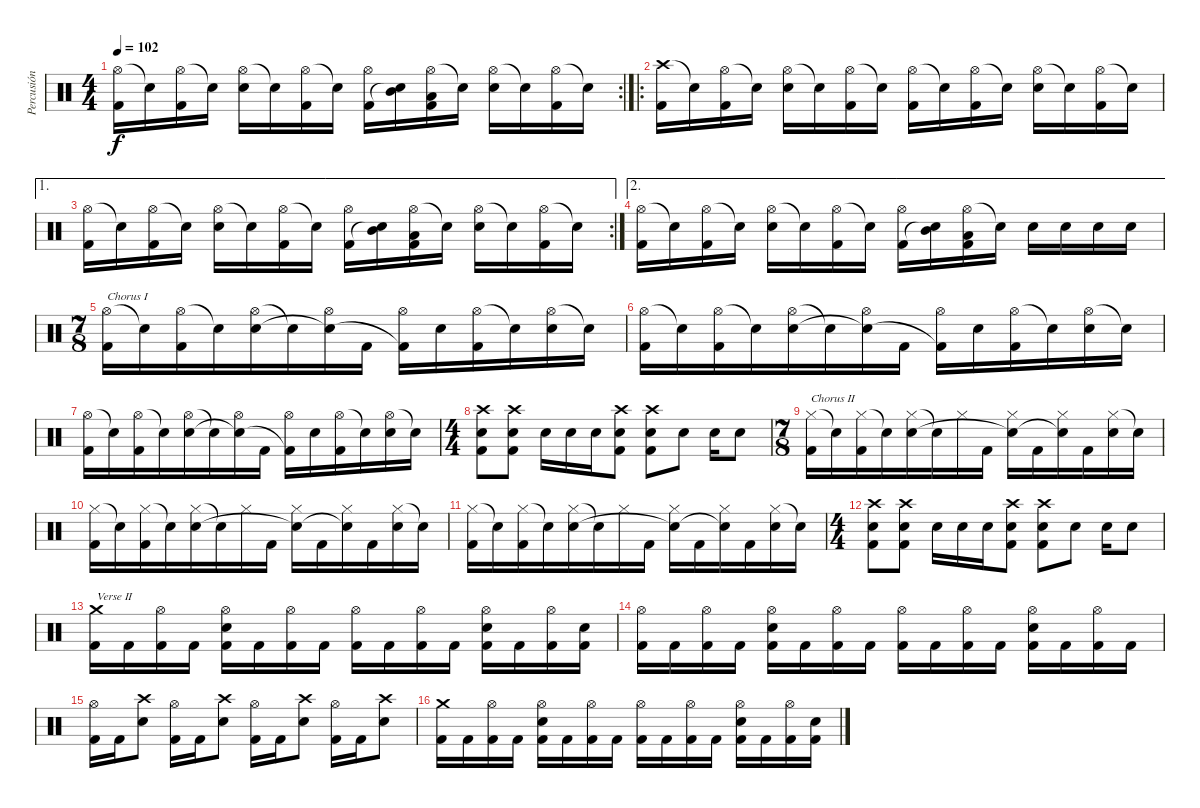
\track ("Percusión" "Percusión") {instrument percussion}
\staff {score}
\articulation defaults
\rc 2
\ts (4 4)
\tempo 102
\clef neutral
\ks c
("Hi-Hat (open)" "Kick (hit) 2").16{dy f} "Snare (hit)"{t}.16 ("Hi-Hat (open)" "Kick (hit) 2").16 "Snare (hit)"{t}.16 ("Hi-Hat (open)" "Electric Snare (hit)").16 "Snare (hit)"{t}.16 ("Hi-Hat (open)" "Kick (hit) 2").16 "Snare (hit)"{t}.16 ("Hi-Hat (open)" "Kick (hit) 2").16 ("Mid Tom (hit)" "Snare (hit)"{t}).16 ("Hi-Hat (open)" "Low Tom (hit)" "Kick (hit) 2").16 "Snare (hit)"{t}.16 ("Hi-Hat (open)" "Electric Snare (hit)").16 "Snare (hit)"{t}.16 ("Hi-Hat (open)" "Kick (hit) 2").16 "Snare (hit)"{t}.16 |
\ro
("Crash high (hit)" "Kick (hit) 2").16 "Snare (hit)"{t}.16 ("Hi-Hat (open)" "Kick (hit) 2").16 "Snare (hit)"{t}.16 ("Hi-Hat (open)" "Electric Snare (hit)").16 "Snare (hit)"{t}.16 ("Hi-Hat (open)" "Kick (hit) 2").16 "Snare (hit)"{t}.16 ("Hi-Hat (open)" "Kick (hit) 2").16 "Snare (hit)"{t}.16 ("Hi-Hat (open)" "Kick (hit) 2").16 "Snare (hit)"{t}.16 ("Hi-Hat (open)" "Electric Snare (hit)").16 "Snare (hit)"{t}.16 ("Hi-Hat (open)" "Kick (hit) 2").16 "Snare (hit)"{t}.16 |
\ae 1
\rc 2
("Hi-Hat (open)" "Kick (hit) 2").16 "Snare (hit)"{t}.16 ("Hi-Hat (open)" "Kick (hit) 2").16 "Snare (hit)"{t}.16 ("Hi-Hat (open)" "Electric Snare (hit)").16 "Snare (hit)"{t}.16 ("Hi-Hat (open)" "Kick (hit) 2").16 "Snare (hit)"{t}.16 ("Hi-Hat (open)" "Kick (hit) 2").16 ("Mid Tom (hit)" "Snare (hit)"{t}).16 ("Hi-Hat (open)" "Low Tom (hit)" "Kick (hit) 2").16 "Snare (hit)"{t}.16 ("Hi-Hat (open)" "Electric Snare (hit)").16 "Snare (hit)"{t}.16 ("Hi-Hat (open)" "Kick (hit) 2").16 "Snare (hit)"{t}.16 |
\ae 2
("Hi-Hat (open)" "Kick (hit) 2").16 "Snare (hit)"{t}.16 ("Hi-Hat (open)" "Kick (hit) 2").16 "Snare (hit)"{t}.16 ("Hi-Hat (open)" "Electric Snare (hit)").16 "Snare (hit)"{t}.16 ("Hi-Hat (open)" "Kick (hit) 2").16 "Snare (hit)"{t}.16 ("Hi-Hat (open)" "Kick (hit) 2").16 ("Mid Tom (hit)" "Snare (hit)"{t}).16 ("Hi-Hat (open)" "Low Tom (hit)" "Kick (hit) 2").16 "Snare (hit)"{t}.16 "Electric Snare (hit)".16 "Electric Snare (hit)".16 "Electric Snare (hit)".16 "Electric Snare (hit)".16 |
\ts (7 8)
("Hi-Hat (open)" "Kick (hit) 2").16{txt "Chorus I"} "Snare (hit)"{t}.16 ("Hi-Hat (open)" "Kick (hit) 2").16 "Snare (hit)"{t}.16 ("Hi-Hat (open)" "Electric Snare (hit)").16 "Snare (hit)"{t}.16 ("Hi-Hat (open)" "Snare (hit)"{t}).16 "Kick (hit) 2".16 ("Hi-Hat (open)" "Kick (hit) 2"{t}).16 "Electric Snare (hit)".16 ("Hi-Hat (open)" "Kick (hit) 2").16 "Snare (hit)"{t}.16 ("Hi-Hat (open)" "Electric Snare (hit)").16 "Snare (hit)"{t}.16 |
("Hi-Hat (open)" "Kick (hit) 2").16 "Snare (hit)"{t}.16 ("Hi-Hat (open)" "Kick (hit) 2").16 "Snare (hit)"{t}.16 ("Hi-Hat (open)" "Electric Snare (hit)").16 "Snare (hit)"{t}.16 ("Hi-Hat (open)" "Snare (hit)"{t}).16 "Kick (hit) 2".16 ("Hi-Hat (open)" "Kick (hit) 2"{t}).16 "Electric Snare (hit)".16 ("Hi-Hat (open)" "Kick (hit) 2").16 "Snare (hit)"{t}.16 ("Hi-Hat (open)" "Electric Snare (hit)").16 "Snare (hit)"{t}.16 |
("Hi-Hat (open)" "Kick (hit) 2").16 "Snare (hit)"{t}.16 ("Hi-Hat (open)" "Kick (hit) 2").16 "Snare (hit)"{t}.16 ("Hi-Hat (open)" "Electric Snare (hit)").16 "Snare (hit)"{t}.16 ("Hi-Hat (open)" "Snare (hit)"{t}).16 "Kick (hit) 2".16 ("Hi-Hat (open)" "Kick (hit) 2"{t}).16 "Electric Snare (hit)".16 ("Hi-Hat (open)" "Kick (hit) 2").16 "Snare (hit)"{t}.16 ("Hi-Hat (open)" "Electric Snare (hit)").16 "Snare (hit)"{t}.16 |
\ts (4 4)
("Crash high (hit)" "Electric Snare (hit)" "Kick (hit) 2").8 ("Crash high (hit)" "Electric Snare (hit)" "Kick (hit) 2").8 "Electric Snare (hit)".16 "Electric Snare (hit)".16 "Electric Snare (hit)".16 ("Crash high (hit)" "Electric Snare (hit)" "Kick (hit) 2").8 ("Crash high (hit)" "Electric Snare (hit)" "Kick (hit) 2").8 "Electric Snare (hit)".8 "Electric Snare (hit)".16 "Electric Snare (hit)".8 |
\ts (7 8)
("Hi-Hat (closed)" "Kick (hit) 2").16{txt "Chorus II"} "Snare (hit)"{t}.16 ("Hi-Hat (closed)" "Kick (hit) 2").16 "Snare (hit)"{t}.16 ("Hi-Hat (closed)" "Electric Snare (hit)").16 "Snare (hit)"{t}.16 "Hi-Hat (closed)".16 "Kick (hit) 2".16 ("Hi-Hat (closed)" "Snare (hit)"{t}).16 "Kick (hit) 2".16 ("Hi-Hat (closed)" "Snare (hit)"{t}).16 "Kick (hit) 2".16 ("Hi-Hat (closed)" "Electric Snare (hit)").16 "Snare (hit)"{t}.16 |
("Hi-Hat (closed)" "Kick (hit) 2").16 "Snare (hit)"{t}.16 ("Hi-Hat (closed)" "Kick (hit) 2").16 "Snare (hit)"{t}.16 ("Hi-Hat (closed)" "Electric Snare (hit)").16 "Snare (hit)"{t}.16 "Hi-Hat (closed)".16 "Kick (hit) 2".16 ("Hi-Hat (closed)" "Snare (hit)"{t}).16 "Kick (hit) 2".16 ("Hi-Hat (closed)" "Snare (hit)"{t}).16 "Kick (hit) 2".16 ("Hi-Hat (closed)" "Electric Snare (hit)").16 "Snare (hit)"{t}.16 |
("Hi-Hat (closed)" "Kick (hit) 2").16 "Snare (hit)"{t}.16 ("Hi-Hat (closed)" "Kick (hit) 2").16 "Snare (hit)"{t}.16 ("Hi-Hat (closed)" "Electric Snare (hit)").16 "Snare (hit)"{t}.16 "Hi-Hat (closed)".16 "Kick (hit) 2".16 ("Hi-Hat (closed)" "Snare (hit)"{t}).16 "Kick (hit) 2".16 ("Hi-Hat (closed)" "Snare (hit)"{t}).16 "Kick (hit) 2".16 ("Hi-Hat (closed)" "Electric Snare (hit)").16 "Snare (hit)"{t}.16 |
\ts (4 4)
("Crash high (hit)" "Electric Snare (hit)" "Kick (hit) 2").8 ("Crash high (hit)" "Electric Snare (hit)" "Kick (hit) 2").8 "Electric Snare (hit)".16 "Electric Snare (hit)".16 "Electric Snare (hit)".16 ("Crash high (hit)" "Electric Snare (hit)" "Kick (hit) 2").8 ("Crash high (hit)" "Electric Snare (hit)" "Kick (hit) 2").8 "Electric Snare (hit)".8 "Electric Snare (hit)".16 "Electric Snare (hit)".8 |
("Crash medium (hit)" "Kick (hit) 2").16{txt "Verse II"} "Kick (hit) 2".16 ("Hi-Hat (open)" "Kick (hit) 2").16 "Kick (hit) 2".16 ("Hi-Hat (open)" "Electric Snare (hit)" "Kick (hit) 2").16 "Kick (hit) 2".16 ("Hi-Hat (open)" "Kick (hit) 2").16 "Kick (hit) 2".16 ("Hi-Hat (open)" "Kick (hit) 2").16 "Kick (hit) 2".16 ("Hi-Hat (open)" "Kick (hit) 2").16 "Kick (hit) 2".16 ("Hi-Hat (open)" "Electric Snare (hit)" "Kick (hit) 2").16 "Kick (hit) 2".16 ("Hi-Hat (open)" "Kick (hit) 2").16 ("Electric Snare (hit)" "Kick (hit) 2").16 |
("Hi-Hat (open)" "Kick (hit) 2").16 "Kick (hit) 2".16 ("Hi-Hat (open)" "Kick (hit) 2").16 "Kick (hit) 2".16 ("Hi-Hat (open)" "Electric Snare (hit)" "Kick (hit) 2").16 "Kick (hit) 2".16 ("Hi-Hat (open)" "Kick (hit) 2").16 "Kick (hit) 2".16 ("Hi-Hat (open)" "Kick (hit) 2").16 "Kick (hit) 2".16 ("Hi-Hat (open)" "Kick (hit) 2").16 "Kick (hit) 2".16 ("Hi-Hat (open)" "Electric Snare (hit)" "Kick (hit) 2").16 "Kick (hit) 2".16 ("Hi-Hat (open)" "Kick (hit) 2").16 "Kick (hit) 2".16 |
("Hi-Hat (open)" "Kick (hit) 2").16 "Kick (hit) 2".16 ("Crash high (hit)" "Electric Snare (hit)").8 ("Hi-Hat (open)" "Kick (hit) 2").16 "Kick (hit) 2".16 ("Crash high (hit)" "Electric Snare (hit)").8 ("Hi-Hat (open)" "Kick (hit) 2").16 "Kick (hit) 2".16 ("Crash high (hit)" "Electric Snare (hit)").8 ("Hi-Hat (open)" "Kick (hit) 2").16 "Kick (hit) 2".16 ("Crash high (hit)" "Electric Snare (hit)").8 |
("Crash medium (hit)" "Kick (hit) 2").16 "Kick (hit) 2".16 ("Hi-Hat (open)" "Kick (hit) 2").16 "Kick (hit) 2".16 ("Hi-Hat (open)" "Electric Snare (hit)" "Kick (hit) 2").16 "Kick (hit) 2".16 ("Hi-Hat (open)" "Kick (hit) 2").16 "Kick (hit) 2".16 ("Hi-Hat (open)" "Kick (hit) 2").16 "Kick (hit) 2".16 ("Hi-Hat (open)" "Kick (hit) 2").16 "Kick (hit) 2".16 ("Hi-Hat (open)" "Electric Snare (hit)" "Kick (hit) 2").16 "Kick (hit) 2".16 ("Hi-Hat (open)" "Kick (hit) 2").16 ("Electric Snare (hit)" "Kick (hit) 2").16
